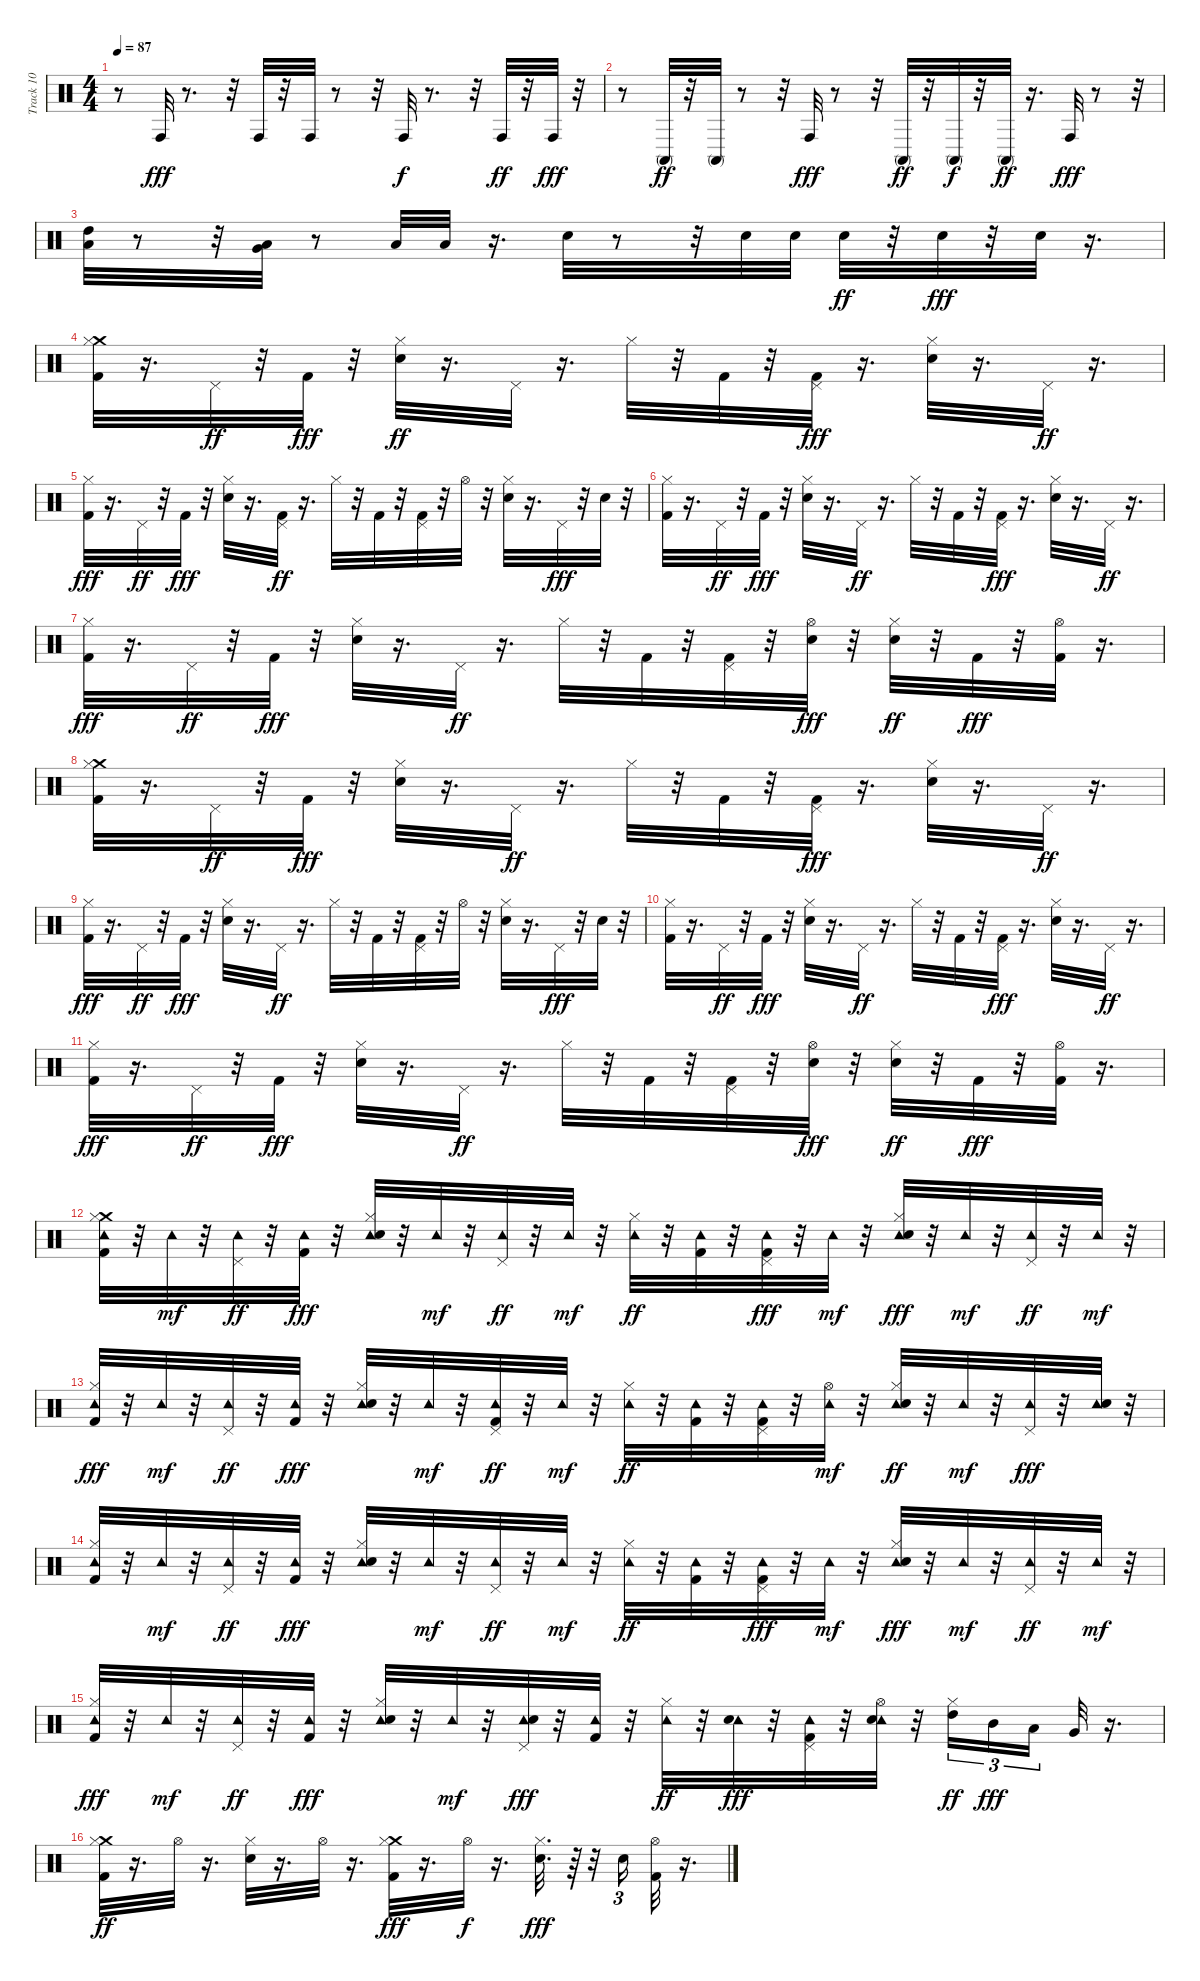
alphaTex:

\track ("Track 10" "Track 10") {instrument percussion}
\staff {score}
\articulation defaults
\ts (4 4)
\tempo 87
\clef neutral
\ks c
r.8{dy ff} "Conga high (hit)".32{dy fff} r.8{d} r.32 "Conga high (hit)".32 r.32 "Conga high (hit)".32 r.8 r.32 "Conga high (hit)".32{dy f} r.8{d} r.32 "Conga high (hit)".32{dy ff} r.32 "Conga high (hit)".32{dy fff} r.32 |
r.8 "Conga high (mute)".32{dy ff} r.32 "Conga high (mute)".32 r.8 r.32 "Conga high (hit)".32{dy fff} r.8 r.32 "Conga high (mute)".32{dy ff} r.32 "Conga high (mute)".32{dy f} r.32 "Conga high (mute)".32{dy ff} r.16{d} "Conga high (hit)".32{dy fff} r.8 r.32 |
("Low Tom (hit)" "High Tom (hit)").32 r.8 r.32 ("Very Low Tom (hit)" "Low Tom (hit)").32 r.8 "Low Floor Tom (hit)".32 "Low Tom (hit)".32 r.16{d} "Snare (hit) 2".32 r.8 r.32 "Snare (hit) 2".32 "Snare (hit) 2".32 "Snare (hit) 2".32{dy ff} r.32 "Snare (hit) 2".32{dy fff} r.32 "Snare (hit) 2".32 r.16{d} |
("Crash medium (hit)" "Kick (hit) 2" "Hi-Hat (closed)").32 r.16{d} "Pedal Hi-Hat (hit)".32{dy ff} r.32 "Kick (hit) 2".32{dy fff} r.32 ("Snare (hit) 2" "Hi-Hat (closed)").32{dy ff} r.16{d} "Pedal Hi-Hat (hit)".32 r.16{d} "Hi-Hat (closed)".32 r.32 "Kick (hit) 2".32 r.32 ("Pedal Hi-Hat (hit)" "Kick (hit) 2").32{dy fff} r.16{d} ("Hi-Hat (closed)" "Snare (hit) 2").32 r.16{d} "Pedal Hi-Hat (hit)".32{dy ff} r.16{d} |
("Hi-Hat (closed)" "Kick (hit) 2").32{dy fff} r.16{d} "Pedal Hi-Hat (hit)".32{dy ff} r.32 "Kick (hit) 2".32{dy fff} r.32 ("Hi-Hat (closed)" "Snare (hit) 2").32 r.16{d} ("Pedal Hi-Hat (hit)" "Kick (hit) 2").32{dy ff} r.16{d} "Hi-Hat (closed)".32 r.32 "Kick (hit) 2".32 r.32 ("Pedal Hi-Hat (hit)" "Kick (hit) 2").32 r.32 "Hi-Hat (open)".32 r.32 ("Snare (hit) 2" "Hi-Hat (closed)").32 r.16{d} "Pedal Hi-Hat (hit)".32{dy fff} r.32 "Snare (hit) 2".32 r.32 |
("Hi-Hat (closed)" "Kick (hit) 2").32 r.16{d} "Pedal Hi-Hat (hit)".32{dy ff} r.32 "Kick (hit) 2".32{dy fff} r.32 ("Hi-Hat (closed)" "Snare (hit) 2").32 r.16{d} "Pedal Hi-Hat (hit)".32{dy ff} r.16{d} "Hi-Hat (closed)".32 r.32 "Kick (hit) 2".32 r.32 ("Pedal Hi-Hat (hit)" "Kick (hit) 2").32{dy fff} r.16{d} ("Hi-Hat (closed)" "Snare (hit) 2").32 r.16{d} "Pedal Hi-Hat (hit)".32{dy ff} r.16{d} |
("Hi-Hat (closed)" "Kick (hit) 2").32{dy fff} r.16{d} "Pedal Hi-Hat (hit)".32{dy ff} r.32 "Kick (hit) 2".32{dy fff} r.32 ("Hi-Hat (closed)" "Snare (hit) 2").32 r.16{d} "Pedal Hi-Hat (hit)".32{dy ff} r.16{d} "Hi-Hat (closed)".32 r.32 "Kick (hit) 2".32 r.32 ("Pedal Hi-Hat (hit)" "Kick (hit) 2").32 r.32 ("Hi-Hat (open)" "Snare (hit) 2").32{dy fff} r.32 ("Snare (hit) 2" "Hi-Hat (closed)").32{dy ff} r.32 "Kick (hit) 2".32{dy fff} r.32 ("Kick (hit) 2" "Hi-Hat (open)").32 r.16{d} |
("Crash medium (hit)" "Hi-Hat (closed)" "Kick (hit) 2").32 r.16{d} "Pedal Hi-Hat (hit)".32{dy ff} r.32 "Kick (hit) 2".32{dy fff} r.32 ("Hi-Hat (closed)" "Snare (hit) 2").32 r.16{d} "Pedal Hi-Hat (hit)".32{dy ff} r.16{d} "Hi-Hat (closed)".32 r.32 "Kick (hit) 2".32 r.32 ("Pedal Hi-Hat (hit)" "Kick (hit) 2").32{dy fff} r.16{d} ("Hi-Hat (closed)" "Snare (hit) 2").32 r.16{d} "Pedal Hi-Hat (hit)".32{dy ff} r.16{d} |
("Hi-Hat (closed)" "Kick (hit) 2").32{dy fff} r.16{d} "Pedal Hi-Hat (hit)".32{dy ff} r.32 "Kick (hit) 2".32{dy fff} r.32 ("Hi-Hat (closed)" "Snare (hit) 2").32 r.16{d} "Pedal Hi-Hat (hit)".32{dy ff} r.16{d} "Hi-Hat (closed)".32 r.32 "Kick (hit) 2".32 r.32 ("Pedal Hi-Hat (hit)" "Kick (hit) 2").32 r.32 "Hi-Hat (open)".32 r.32 ("Snare (hit) 2" "Hi-Hat (closed)").32 r.16{d} "Pedal Hi-Hat (hit)".32{dy fff} r.32 "Snare (hit) 2".32 r.32 |
("Hi-Hat (closed)" "Kick (hit) 2").32 r.16{d} "Pedal Hi-Hat (hit)".32{dy ff} r.32 "Kick (hit) 2".32{dy fff} r.32 ("Hi-Hat (closed)" "Snare (hit) 2").32 r.16{d} "Pedal Hi-Hat (hit)".32{dy ff} r.16{d} "Hi-Hat (closed)".32 r.32 "Kick (hit) 2".32 r.32 ("Pedal Hi-Hat (hit)" "Kick (hit) 2").32{dy fff} r.16{d} ("Hi-Hat (closed)" "Snare (hit) 2").32 r.16{d} "Pedal Hi-Hat (hit)".32{dy ff} r.16{d} |
("Hi-Hat (closed)" "Kick (hit) 2").32{dy fff} r.16{d} "Pedal Hi-Hat (hit)".32{dy ff} r.32 "Kick (hit) 2".32{dy fff} r.32 ("Hi-Hat (closed)" "Snare (hit) 2").32 r.16{d} "Pedal Hi-Hat (hit)".32{dy ff} r.16{d} "Hi-Hat (closed)".32 r.32 "Kick (hit) 2".32 r.32 ("Pedal Hi-Hat (hit)" "Kick (hit) 2").32 r.32 ("Hi-Hat (open)" "Snare (hit) 2").32{dy fff} r.32 ("Snare (hit) 2" "Hi-Hat (closed)").32{dy ff} r.32 "Kick (hit) 2".32{dy fff} r.32 ("Kick (hit) 2" "Hi-Hat (open)").32 r.16{d} |
("Tambourine (hit)" "Crash medium (hit)" "Hi-Hat (closed)" "Kick (hit) 2").32 r.32 "Tambourine (hit)".32{dy mf} r.32 ("Tambourine (hit)" "Pedal Hi-Hat (hit)").32{dy ff} r.32 ("Tambourine (hit)" "Kick (hit) 2").32{dy fff} r.32 ("Tambourine (hit)" "Hi-Hat (closed)" "Snare (hit) 2").32 r.32 "Tambourine (hit)".32{dy mf} r.32 ("Tambourine (hit)" "Pedal Hi-Hat (hit)").32{dy ff} r.32 "Tambourine (hit)".32{dy mf} r.32 ("Tambourine (hit)" "Hi-Hat (closed)").32{dy ff} r.32 ("Tambourine (hit)" "Kick (hit) 2").32 r.32 ("Tambourine (hit)" "Pedal Hi-Hat (hit)" "Kick (hit) 2").32{dy fff} r.32 "Tambourine (hit)".32{dy mf} r.32 ("Tambourine (hit)" "Hi-Hat (closed)" "Snare (hit) 2").32{dy fff} r.32 "Tambourine (hit)".32{dy mf} r.32 ("Tambourine (hit)" "Pedal Hi-Hat (hit)").32{dy ff} r.32 "Tambourine (hit)".32{dy mf} r.32 |
("Tambourine (hit)" "Hi-Hat (closed)" "Kick (hit) 2").32{dy fff} r.32 "Tambourine (hit)".32{dy mf} r.32 ("Tambourine (hit)" "Pedal Hi-Hat (hit)").32{dy ff} r.32 ("Tambourine (hit)" "Kick (hit) 2").32{dy fff} r.32 ("Tambourine (hit)" "Hi-Hat (closed)" "Snare (hit) 2").32 r.32 "Tambourine (hit)".32{dy mf} r.32 ("Tambourine (hit)" "Pedal Hi-Hat (hit)" "Kick (hit) 2").32{dy ff} r.32 "Tambourine (hit)".32{dy mf} r.32 ("Tambourine (hit)" "Hi-Hat (closed)").32{dy ff} r.32 ("Tambourine (hit)" "Kick (hit) 2").32 r.32 ("Tambourine (hit)" "Pedal Hi-Hat (hit)" "Kick (hit) 2").32 r.32 ("Hi-Hat (open)" "Tambourine (hit)").32{dy mf} r.32 ("Tambourine (hit)" "Snare (hit) 2" "Hi-Hat (closed)").32{dy ff} r.32 "Tambourine (hit)".32{dy mf} r.32 ("Tambourine (hit)" "Pedal Hi-Hat (hit)").32{dy fff} r.32 ("Tambourine (hit)" "Snare (hit) 2").32 r.32 |
("Tambourine (hit)" "Hi-Hat (closed)" "Kick (hit) 2").32 r.32 "Tambourine (hit)".32{dy mf} r.32 ("Tambourine (hit)" "Pedal Hi-Hat (hit)").32{dy ff} r.32 ("Tambourine (hit)" "Kick (hit) 2").32{dy fff} r.32 ("Tambourine (hit)" "Hi-Hat (closed)" "Snare (hit) 2").32 r.32 "Tambourine (hit)".32{dy mf} r.32 ("Tambourine (hit)" "Pedal Hi-Hat (hit)").32{dy ff} r.32 "Tambourine (hit)".32{dy mf} r.32 ("Tambourine (hit)" "Hi-Hat (closed)").32{dy ff} r.32 ("Tambourine (hit)" "Kick (hit) 2").32 r.32 ("Tambourine (hit)" "Pedal Hi-Hat (hit)" "Kick (hit) 2").32{dy fff} r.32 "Tambourine (hit)".32{dy mf} r.32 ("Tambourine (hit)" "Hi-Hat (closed)" "Snare (hit) 2").32{dy fff} r.32 "Tambourine (hit)".32{dy mf} r.32 ("Tambourine (hit)" "Pedal Hi-Hat (hit)").32{dy ff} r.32 "Tambourine (hit)".32{dy mf} r.32 |
("Tambourine (hit)" "Hi-Hat (closed)" "Kick (hit) 2").32{dy fff} r.32 "Tambourine (hit)".32{dy mf} r.32 ("Tambourine (hit)" "Pedal Hi-Hat (hit)").32{dy ff} r.32 ("Tambourine (hit)" "Kick (hit) 2").32{dy fff} r.32 ("Tambourine (hit)" "Hi-Hat (closed)" "Snare (hit) 2").32 r.32 "Tambourine (hit)".32{dy mf} r.32 ("Tambourine (hit)" "Pedal Hi-Hat (hit)" "Snare (hit) 2").32{dy fff} r.32 ("Tambourine (hit)" "Kick (hit) 2").32 r.32 ("Tambourine (hit)" "Hi-Hat (closed)").32{dy ff} r.32 ("Tambourine (hit)" "Snare (hit) 2").32{dy fff} r.32 ("Tambourine (hit)" "Pedal Hi-Hat (hit)" "Kick (hit) 2").32 r.32 ("Hi-Hat (open)" "Tambourine (hit)" "Snare (hit) 2").32 r.32 ("High Tom (hit)" "Hi-Hat (closed)").16{tu (3 2) dy ff} "Mid Tom (hit)".16{tu (3 2) dy fff} "Low Tom (hit)".16{tu (3 2) beam splitsecondary} "Very Low Tom (hit)".32 r.16{d} |
("Crash medium (hit)" "Kick (hit) 2" "Hi-Hat (closed)").32{dy ff} r.16{d} "Hi-Hat (open)".32 r.16{d} ("Snare (hit) 2" "Hi-Hat (closed)").32 r.16{d} "Hi-Hat (open)".32 r.16{d} ("Crash medium (hit)" "Kick (hit) 2" "Hi-Hat (closed)").32{dy fff} r.16{d} "Hi-Hat (open)".32{dy f} r.16{d} ("Hi-Hat (closed)" "Snare (hit) 2").32{d dy fff} r.64 r.32 "Snare (hit) 2".16{tu (3 2)} ("Hi-Hat (open)" "Kick (hit) 2").32 r.16{d}
